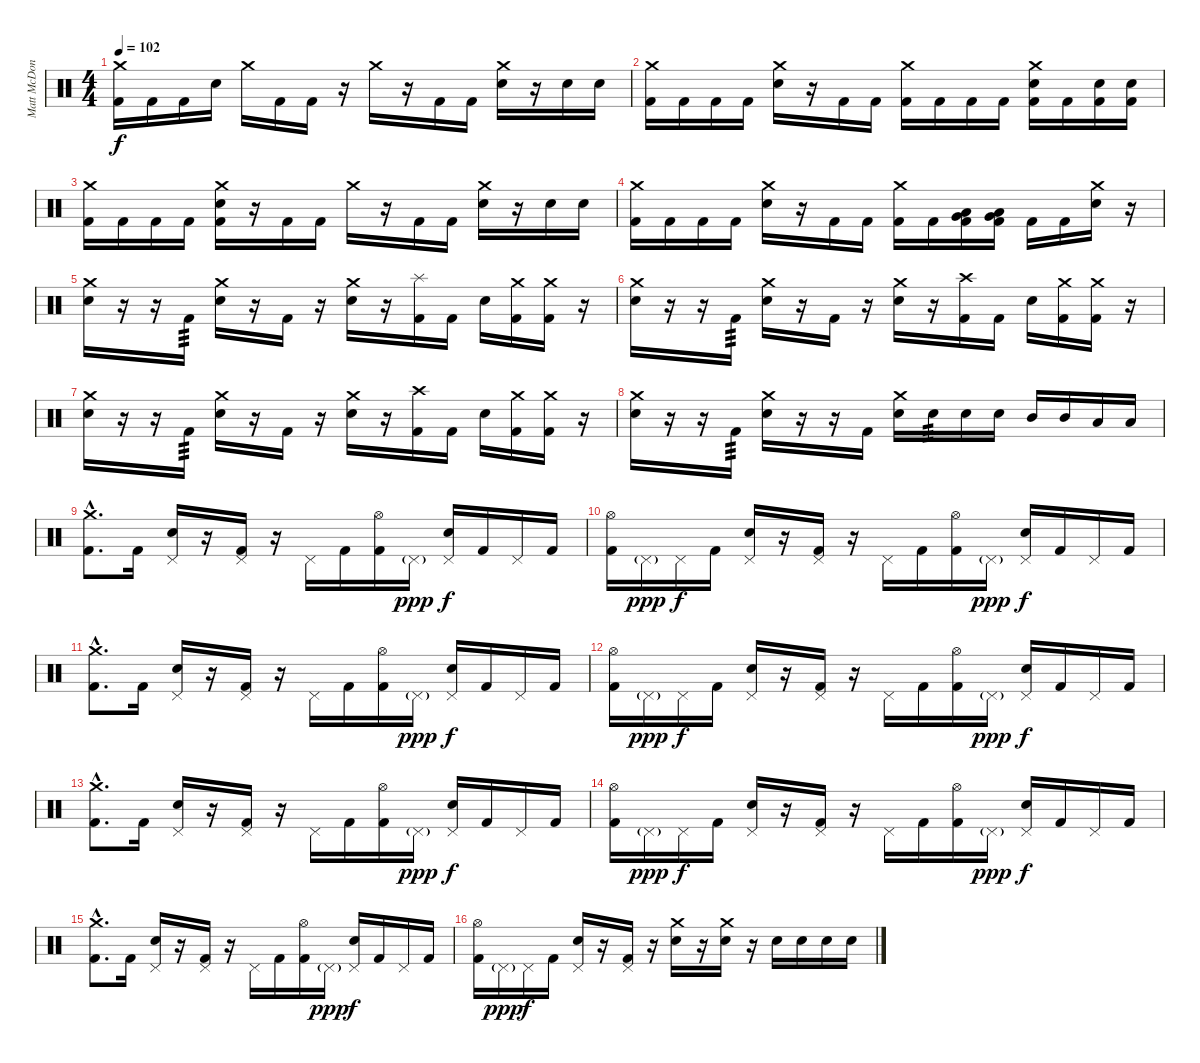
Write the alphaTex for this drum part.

\track ("Matt McDonough" "Matt McDon") {instrument percussion}
\staff {score}
\articulation defaults
\ts (4 4)
\tempo 102
\clef neutral
\ks c
("Crash medium (hit)" "Kick (hit) 2").16{dy f} "Kick (hit) 2".16 "Kick (hit) 2".16 "Electric Snare (hit)".16 "Crash medium (hit)".16 "Kick (hit) 2".16 "Kick (hit) 2".16 r.16 "Crash medium (hit)".16 r.16 "Kick (hit) 2".16 "Kick (hit) 2".16 ("Crash medium (hit)" "Electric Snare (hit)").16 r.16 "Electric Snare (hit)".16 "Electric Snare (hit)".16 |
("Crash medium (hit)" "Kick (hit) 2").16 "Kick (hit) 2".16 "Kick (hit) 2".16 "Kick (hit) 2".16 ("Crash medium (hit)" "Electric Snare (hit)").16 r.16 "Kick (hit) 2".16 "Kick (hit) 2".16 ("Crash medium (hit)" "Kick (hit) 2").16 "Kick (hit) 2".16 "Kick (hit) 2".16 "Kick (hit) 2".16 ("Crash medium (hit)" "Electric Snare (hit)" "Kick (hit) 2").16 "Kick (hit) 2".16 ("Electric Snare (hit)" "Kick (hit) 2").16 ("Electric Snare (hit)" "Kick (hit) 2").16 |
("Crash medium (hit)" "Kick (hit) 2").16 "Kick (hit) 2".16 "Kick (hit) 2".16 "Kick (hit) 2".16 ("Crash medium (hit)" "Electric Snare (hit)" "Kick (hit) 2").16 r.16 "Kick (hit) 2".16 "Kick (hit) 2".16 "Crash medium (hit)".16 r.16 "Kick (hit) 2".16 "Kick (hit) 2".16 ("Crash medium (hit)" "Electric Snare (hit)").16 r.16 "Electric Snare (hit)".16 "Electric Snare (hit)".16 |
("Crash medium (hit)" "Kick (hit) 2").16 "Kick (hit) 2".16 "Kick (hit) 2".16 "Kick (hit) 2".16 ("Crash medium (hit)" "Electric Snare (hit)").16 r.16 "Kick (hit) 2".16 "Kick (hit) 2".16 ("Crash medium (hit)" "Kick (hit) 2").16 "Kick (hit) 2".16 ("Very Low Tom (hit)" "Low Floor Tom (hit)" "Kick (hit) 2").16 ("Very Low Tom (hit)" "Low Floor Tom (hit)" "Kick (hit) 2").16 "Kick (hit) 2".16 "Kick (hit) 2".16 ("Crash medium (hit)" "Electric Snare (hit)").16 r.16 |
("Crash medium (hit)" "Electric Snare (hit)").16 r.16 r.16 "Kick (hit) 2".16{tp 3} ("Crash medium (hit)" "Electric Snare (hit)").16 r.16 "Kick (hit) 2".16 r.16 ("Crash medium (hit)" "Electric Snare (hit)").16 r.16 ("Splash (hit)" "Kick (hit) 2").16 "Kick (hit) 2".16 "Electric Snare (hit)".16 ("Crash medium (hit)" "Kick (hit) 2").16 ("Crash medium (hit)" "Kick (hit) 2").16 r.16 |
("Crash medium (hit)" "Electric Snare (hit)").16 r.16 r.16 "Kick (hit) 2".16{tp 3} ("Crash medium (hit)" "Electric Snare (hit)").16 r.16 "Kick (hit) 2".16 r.16 ("Crash medium (hit)" "Electric Snare (hit)").16 r.16 ("Crash high (hit)" "Kick (hit) 2").16 "Kick (hit) 2".16 "Electric Snare (hit)".16 ("Crash medium (hit)" "Kick (hit) 2").16 ("Crash medium (hit)" "Kick (hit) 2").16 r.16 |
("Crash medium (hit)" "Electric Snare (hit)").16 r.16 r.16 "Kick (hit) 2".16{tp 3} ("Crash medium (hit)" "Electric Snare (hit)").16 r.16 "Kick (hit) 2".16 r.16 ("Crash medium (hit)" "Electric Snare (hit)").16 r.16 ("Crash high (hit)" "Kick (hit) 2").16 "Kick (hit) 2".16 "Electric Snare (hit)".16 ("Crash medium (hit)" "Kick (hit) 2").16 ("Crash medium (hit)" "Kick (hit) 2").16 r.16 |
("Crash medium (hit)" "Electric Snare (hit)").16 r.16 r.16 "Kick (hit) 2".16{tp 3} ("Crash medium (hit)" "Electric Snare (hit)").16 r.16 r.16 "Kick (hit) 2".16 ("Crash medium (hit)" "Electric Snare (hit)").16 "Electric Snare (hit)".16{tp 3} "Electric Snare (hit)".16 "Electric Snare (hit)".16 "Mid Tom (hit)".16 "Mid Tom (hit)".16 "Low Tom (hit)".16 "Low Tom (hit)".16 |
("Crash medium (hit)"{hac} "Kick (hit) 2"{hac}).8{d} "Kick (hit) 2".16 ("Pedal Hi-Hat (hit)" "Electric Snare (hit)").16 r.16 ("Pedal Hi-Hat (hit)" "Kick (hit) 2").16 r.16 "Pedal Hi-Hat (hit)".16 "Kick (hit) 2".16 ("Hi-Hat (open)" "Kick (hit) 2").16 "Pedal Hi-Hat (hit)"{g}.16{dy ppp} ("Pedal Hi-Hat (hit)" "Electric Snare (hit)").16{dy f} "Kick (hit) 2".16 "Pedal Hi-Hat (hit)".16 "Kick (hit) 2".16 |
("Hi-Hat (open)" "Kick (hit) 2").16 "Pedal Hi-Hat (hit)"{g}.16{dy ppp} "Pedal Hi-Hat (hit)".16{dy f} "Kick (hit) 2".16 ("Pedal Hi-Hat (hit)" "Electric Snare (hit)").16 r.16 ("Pedal Hi-Hat (hit)" "Kick (hit) 2").16 r.16 "Pedal Hi-Hat (hit)".16 "Kick (hit) 2".16 ("Hi-Hat (open)" "Kick (hit) 2").16 "Pedal Hi-Hat (hit)"{g}.16{dy ppp} ("Pedal Hi-Hat (hit)" "Electric Snare (hit)").16{dy f} "Kick (hit) 2".16 "Pedal Hi-Hat (hit)".16 "Kick (hit) 2".16 |
("Crash medium (hit)"{hac} "Kick (hit) 2"{hac}).8{d} "Kick (hit) 2".16 ("Pedal Hi-Hat (hit)" "Electric Snare (hit)").16 r.16 ("Pedal Hi-Hat (hit)" "Kick (hit) 2").16 r.16 "Pedal Hi-Hat (hit)".16 "Kick (hit) 2".16 ("Hi-Hat (open)" "Kick (hit) 2").16 "Pedal Hi-Hat (hit)"{g}.16{dy ppp} ("Pedal Hi-Hat (hit)" "Electric Snare (hit)").16{dy f} "Kick (hit) 2".16 "Pedal Hi-Hat (hit)".16 "Kick (hit) 2".16 |
("Hi-Hat (open)" "Kick (hit) 2").16 "Pedal Hi-Hat (hit)"{g}.16{dy ppp} "Pedal Hi-Hat (hit)".16{dy f} "Kick (hit) 2".16 ("Pedal Hi-Hat (hit)" "Electric Snare (hit)").16 r.16 ("Pedal Hi-Hat (hit)" "Kick (hit) 2").16 r.16 "Pedal Hi-Hat (hit)".16 "Kick (hit) 2".16 ("Hi-Hat (open)" "Kick (hit) 2").16 "Pedal Hi-Hat (hit)"{g}.16{dy ppp} ("Pedal Hi-Hat (hit)" "Electric Snare (hit)").16{dy f} "Kick (hit) 2".16 "Pedal Hi-Hat (hit)".16 "Kick (hit) 2".16 |
("Crash medium (hit)"{hac} "Kick (hit) 2"{hac}).8{d} "Kick (hit) 2".16 ("Pedal Hi-Hat (hit)" "Electric Snare (hit)").16 r.16 ("Pedal Hi-Hat (hit)" "Kick (hit) 2").16 r.16 "Pedal Hi-Hat (hit)".16 "Kick (hit) 2".16 ("Hi-Hat (open)" "Kick (hit) 2").16 "Pedal Hi-Hat (hit)"{g}.16{dy ppp} ("Pedal Hi-Hat (hit)" "Electric Snare (hit)").16{dy f} "Kick (hit) 2".16 "Pedal Hi-Hat (hit)".16 "Kick (hit) 2".16 |
("Hi-Hat (open)" "Kick (hit) 2").16 "Pedal Hi-Hat (hit)"{g}.16{dy ppp} "Pedal Hi-Hat (hit)".16{dy f} "Kick (hit) 2".16 ("Pedal Hi-Hat (hit)" "Electric Snare (hit)").16 r.16 ("Pedal Hi-Hat (hit)" "Kick (hit) 2").16 r.16 "Pedal Hi-Hat (hit)".16 "Kick (hit) 2".16 ("Hi-Hat (open)" "Kick (hit) 2").16 "Pedal Hi-Hat (hit)"{g}.16{dy ppp} ("Pedal Hi-Hat (hit)" "Electric Snare (hit)").16{dy f} "Kick (hit) 2".16 "Pedal Hi-Hat (hit)".16 "Kick (hit) 2".16 |
("Crash medium (hit)"{hac} "Kick (hit) 2"{hac}).8{d} "Kick (hit) 2".16 ("Pedal Hi-Hat (hit)" "Electric Snare (hit)").16 r.16 ("Pedal Hi-Hat (hit)" "Kick (hit) 2").16 r.16 "Pedal Hi-Hat (hit)".16 "Kick (hit) 2".16 ("Hi-Hat (open)" "Kick (hit) 2").16 "Pedal Hi-Hat (hit)"{g}.16{dy ppp} ("Pedal Hi-Hat (hit)" "Electric Snare (hit)").16{dy f} "Kick (hit) 2".16 "Pedal Hi-Hat (hit)".16 "Kick (hit) 2".16 |
("Hi-Hat (open)" "Kick (hit) 2").16 "Pedal Hi-Hat (hit)"{g}.16{dy ppp} "Pedal Hi-Hat (hit)".16{dy f} "Kick (hit) 2".16 ("Pedal Hi-Hat (hit)" "Electric Snare (hit)").16 r.16 ("Pedal Hi-Hat (hit)" "Kick (hit) 2").16 r.16 ("Crash medium (hit)" "Electric Snare (hit)").16 r.16 ("Crash medium (hit)" "Electric Snare (hit)").16 r.16 "Electric Snare (hit)".16 "Electric Snare (hit)".16 "Electric Snare (hit)".16 "Electric Snare (hit)".16
